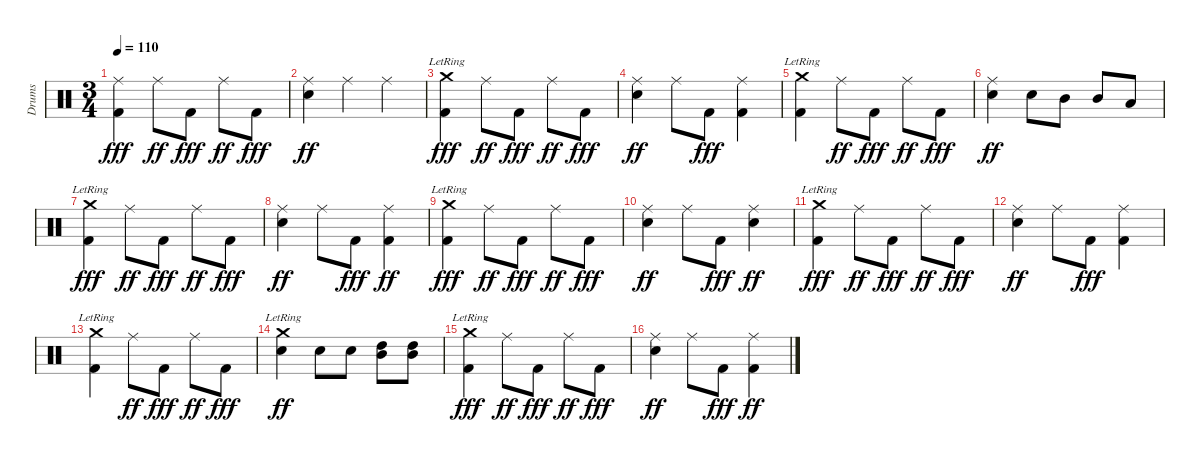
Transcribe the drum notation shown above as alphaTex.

\track ("Drums" "Drums") {instrument percussion}
\staff {score}
\articulation defaults
\ts (3 4)
\tempo 110
\clef neutral
\ks c
("Ride (middle)" "Kick (hit) 2").4{dy fff} "Ride (middle)".8{dy ff} "Kick (hit) 2".8{dy fff} "Ride (middle)".8{dy ff} "Kick (hit) 2".8{dy fff} |
("Ride (middle)" "Snare (hit) 2").4{dy ff} "Ride (middle)".4 "Ride (middle)".4 |
("Crash medium (hit)"{lr} "Kick (hit) 2").4{dy fff} "Ride (middle)".8{dy ff} "Kick (hit) 2".8{dy fff} "Ride (middle)".8{dy ff} "Kick (hit) 2".8{dy fff} |
("Ride (middle)" "Snare (hit) 2").4{dy ff} "Ride (middle)".8 "Kick (hit) 2".8{dy fff} ("Ride (middle)" "Kick (hit) 2").4 |
("Crash medium (hit)"{lr} "Kick (hit) 2").4 "Ride (middle)".8{dy ff} "Kick (hit) 2".8{dy fff} "Ride (middle)".8{dy ff} "Kick (hit) 2".8{dy fff} |
("Ride (middle)" "Snare (hit) 2").4{dy ff} "Snare (hit) 2".8 "Mid Tom (hit)".8 "Mid Tom (hit)".8 "Low Tom (hit)".8 |
("Crash medium (hit)"{lr} "Kick (hit) 2").4{dy fff} "Ride (middle)".8{dy ff} "Kick (hit) 2".8{dy fff} "Ride (middle)".8{dy ff} "Kick (hit) 2".8{dy fff} |
("Ride (middle)" "Snare (hit) 2").4{dy ff} "Ride (middle)".8 "Kick (hit) 2".8{dy fff} ("Ride (middle)" "Kick (hit) 2").4{dy ff} |
("Crash medium (hit)"{lr} "Kick (hit) 2").4{dy fff} "Ride (middle)".8{dy ff} "Kick (hit) 2".8{dy fff} "Ride (middle)".8{dy ff} "Kick (hit) 2".8{dy fff} |
("Ride (middle)" "Snare (hit) 2").4{dy ff} "Ride (middle)".8 "Kick (hit) 2".8{dy fff} ("Ride (middle)" "Snare (hit) 2").4{dy ff} |
("Crash medium (hit)"{lr} "Kick (hit) 2").4{dy fff} "Ride (middle)".8{dy ff} "Kick (hit) 2".8{dy fff} "Ride (middle)".8{dy ff} "Kick (hit) 2".8{dy fff} |
("Ride (middle)" "Snare (hit) 2").4{dy ff} "Ride (middle)".8 "Kick (hit) 2".8{dy fff} ("Ride (middle)" "Kick (hit) 2").4 |
("Crash medium (hit)"{lr} "Kick (hit) 2").4 "Ride (middle)".8{dy ff} "Kick (hit) 2".8{dy fff} "Ride (middle)".8{dy ff} "Kick (hit) 2".8{dy fff} |
("Crash medium (hit)"{lr} "Snare (hit) 2").4{dy ff} "Snare (hit) 2".8 "Snare (hit) 2".8 ("High Tom (hit)" "Mid Tom (hit)").8 ("High Tom (hit)" "Mid Tom (hit)").8 |
("Crash medium (hit)"{lr} "Kick (hit) 2").4{dy fff} "Ride (middle)".8{dy ff} "Kick (hit) 2".8{dy fff} "Ride (middle)".8{dy ff} "Kick (hit) 2".8{dy fff} |
("Ride (middle)" "Snare (hit) 2").4{dy ff} "Ride (middle)".8 "Kick (hit) 2".8{dy fff} ("Ride (middle)" "Kick (hit) 2").4{dy ff}
